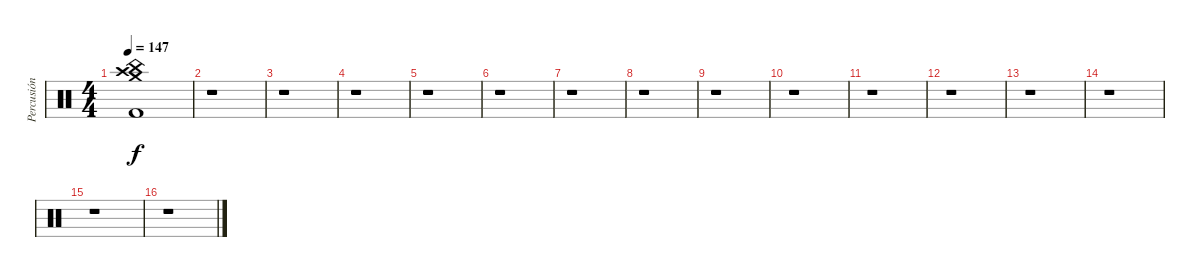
\track ("Percusión" "Percusión") {instrument percussion}
\staff {score}
\articulation defaults
\ts (4 4)
\tempo 147
\clef neutral
\ks c
("Crash medium (hit)" "Crash high (hit)" "China (hit)" "Kick (hit) 2").1{dy f} |
r.1 |
r.1 |
r.1 |
r.1 |
r.1 |
r.1 |
r.1 |
r.1 |
r.1 |
r.1 |
r.1 |
r.1 |
r.1 |
r.1 |
r.1
